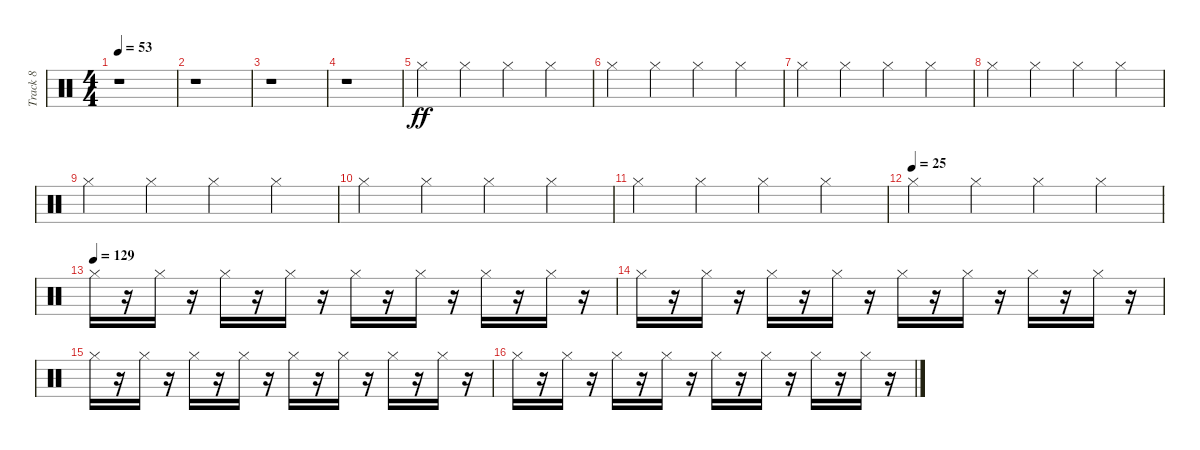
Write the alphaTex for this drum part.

\track ("Track 8" "Track 8") {instrument percussion}
\staff {score}
\articulation defaults
\ts (4 4)
\tempo 53
\clef neutral
\ks c
r.1{dy ff} |
r.1 |
r.1 |
r.1 |
"Hi-Hat (closed)".4 "Hi-Hat (closed)".4 "Hi-Hat (closed)".4 "Hi-Hat (closed)".4 |
"Hi-Hat (closed)".4 "Hi-Hat (closed)".4 "Hi-Hat (closed)".4 "Hi-Hat (closed)".4 |
"Hi-Hat (closed)".4 "Hi-Hat (closed)".4 "Hi-Hat (closed)".4 "Hi-Hat (closed)".4 |
"Hi-Hat (closed)".4 "Hi-Hat (closed)".4 "Hi-Hat (closed)".4 "Hi-Hat (closed)".4 |
"Hi-Hat (closed)".4 "Hi-Hat (closed)".4 "Hi-Hat (closed)".4 "Hi-Hat (closed)".4 |
"Hi-Hat (closed)".4 "Hi-Hat (closed)".4 "Hi-Hat (closed)".4 "Hi-Hat (closed)".4 |
"Hi-Hat (closed)".4 "Hi-Hat (closed)".4 "Hi-Hat (closed)".4 "Hi-Hat (closed)".4 |
\tempo (25)
"Hi-Hat (closed)".4 "Hi-Hat (closed)".4 "Hi-Hat (closed)".4 "Hi-Hat (closed)".4 |
\tempo (129)
"Hi-Hat (closed)".16 r.16 "Hi-Hat (closed)".16 r.16 "Hi-Hat (closed)".16 r.16 "Hi-Hat (closed)".16 r.16 "Hi-Hat (closed)".16 r.16 "Hi-Hat (closed)".16 r.16 "Hi-Hat (closed)".16 r.16 "Hi-Hat (closed)".16 r.16 |
"Hi-Hat (closed)".16 r.16 "Hi-Hat (closed)".16 r.16 "Hi-Hat (closed)".16 r.16 "Hi-Hat (closed)".16 r.16 "Hi-Hat (closed)".16 r.16 "Hi-Hat (closed)".16 r.16 "Hi-Hat (closed)".16 r.16 "Hi-Hat (closed)".16 r.16 |
"Hi-Hat (closed)".16 r.16 "Hi-Hat (closed)".16 r.16 "Hi-Hat (closed)".16 r.16 "Hi-Hat (closed)".16 r.16 "Hi-Hat (closed)".16 r.16 "Hi-Hat (closed)".16 r.16 "Hi-Hat (closed)".16 r.16 "Hi-Hat (closed)".16 r.16 |
"Hi-Hat (closed)".16 r.16 "Hi-Hat (closed)".16 r.16 "Hi-Hat (closed)".16 r.16 "Hi-Hat (closed)".16 r.16 "Hi-Hat (closed)".16 r.16 "Hi-Hat (closed)".16 r.16 "Hi-Hat (closed)".16 r.16 "Hi-Hat (closed)".16 r.16
